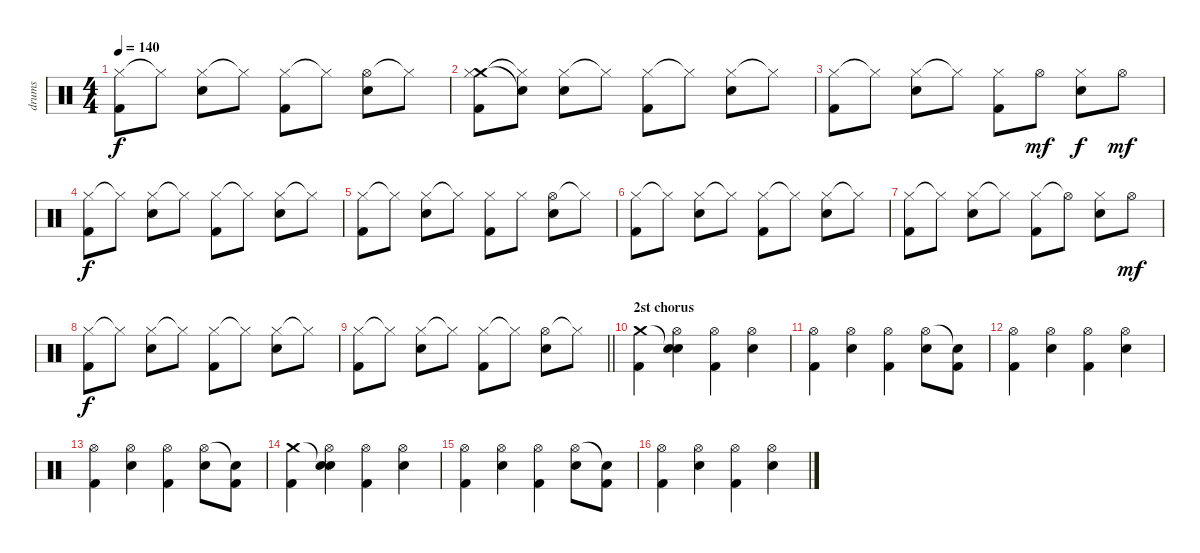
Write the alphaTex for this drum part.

\track ("drums" "drums") {instrument percussion}
\staff {score}
\articulation defaults
\ts (4 4)
\tempo 140
\clef neutral
\ks c
("Hi-Hat (closed)" "Kick (hit) 2").8{dy f} "Hi-Hat (closed)"{t}.8 ("Hi-Hat (closed)" "Electric Snare (hit)").8 "Hi-Hat (closed)"{t}.8 ("Hi-Hat (closed)" "Kick (hit) 2").8 "Hi-Hat (closed)"{t}.8 ("Hi-Hat (open)" "Electric Snare (hit)").8 "Hi-Hat (closed)"{t}.8 |
("Crash medium (hit)" "Hi-Hat (closed)" "Kick (hit) 2").8 ("Snare (hit)"{t} "Hi-Hat (closed)"{t}).8 ("Hi-Hat (closed)" "Electric Snare (hit)").8 "Hi-Hat (closed)"{t}.8 ("Hi-Hat (closed)" "Kick (hit) 2").8 "Hi-Hat (closed)"{t}.8 ("Hi-Hat (closed)" "Electric Snare (hit)").8 "Hi-Hat (closed)"{t}.8 |
("Hi-Hat (closed)" "Kick (hit) 2").8 "Hi-Hat (closed)"{t}.8 ("Hi-Hat (closed)" "Electric Snare (hit)").8 "Hi-Hat (closed)"{t}.8 ("Hi-Hat (closed)" "Kick (hit) 2").8 "Hi-Hat (open)".8{dy mf} ("Hi-Hat (closed)" "Electric Snare (hit)").8{dy f} "Hi-Hat (open)".8{dy mf} |
("Hi-Hat (closed)" "Kick (hit) 2").8{dy f} "Hi-Hat (closed)"{t}.8 ("Hi-Hat (closed)" "Electric Snare (hit)").8 "Hi-Hat (closed)"{t}.8 ("Hi-Hat (closed)" "Kick (hit) 2").8 "Hi-Hat (closed)"{t}.8 ("Hi-Hat (closed)" "Electric Snare (hit)").8 "Hi-Hat (closed)"{t}.8 |
("Hi-Hat (closed)" "Kick (hit) 2").8 "Hi-Hat (closed)"{t}.8 ("Hi-Hat (closed)" "Electric Snare (hit)").8 "Hi-Hat (closed)"{t}.8 ("Hi-Hat (closed)" "Kick (hit) 2").8 "Hi-Hat (closed)".8 ("Hi-Hat (open)" "Electric Snare (hit)").8 "Hi-Hat (closed)"{t}.8 |
("Hi-Hat (closed)" "Kick (hit) 2").8 "Hi-Hat (closed)"{t}.8 ("Hi-Hat (closed)" "Electric Snare (hit)").8 "Hi-Hat (closed)"{t}.8 ("Hi-Hat (closed)" "Kick (hit) 2").8 "Hi-Hat (closed)"{t}.8 ("Hi-Hat (closed)" "Electric Snare (hit)").8 "Hi-Hat (closed)"{t}.8 |
("Hi-Hat (closed)" "Kick (hit) 2").8 "Hi-Hat (closed)"{t}.8 ("Hi-Hat (closed)" "Electric Snare (hit)").8 "Hi-Hat (closed)"{t}.8 ("Hi-Hat (closed)" "Kick (hit) 2").8 "Hi-Hat (open)"{t}.8 ("Hi-Hat (closed)" "Electric Snare (hit)").8 "Hi-Hat (open)".8{dy mf} |
("Hi-Hat (closed)" "Kick (hit) 2").8{dy f} "Hi-Hat (closed)"{t}.8 ("Hi-Hat (closed)" "Electric Snare (hit)").8 "Hi-Hat (closed)"{t}.8 ("Hi-Hat (closed)" "Kick (hit) 2").8 "Hi-Hat (closed)"{t}.8 ("Hi-Hat (closed)" "Electric Snare (hit)").8 "Hi-Hat (closed)"{t}.8 |
\barLineRight lightlight
("Hi-Hat (closed)" "Kick (hit) 2").8 "Hi-Hat (closed)"{t}.8 ("Hi-Hat (closed)" "Electric Snare (hit)").8 "Hi-Hat (closed)"{t}.8 ("Hi-Hat (closed)" "Kick (hit) 2").8 "Hi-Hat (closed)"{t}.8 ("Hi-Hat (open)" "Electric Snare (hit)").8 "Hi-Hat (closed)"{t}.8 |
\section ("" "2st chorus")
("Crash medium (hit)" "Kick (hit) 2").4 ("Snare (hit)"{t} "Hi-Hat (open)" "Electric Snare (hit)").4 ("Hi-Hat (open)" "Kick (hit) 2").4 ("Hi-Hat (open)" "Electric Snare (hit)").4 |
("Hi-Hat (open)" "Kick (hit) 2").4 ("Hi-Hat (open)" "Electric Snare (hit)").4 ("Hi-Hat (open)" "Kick (hit) 2").4 ("Hi-Hat (open)" "Electric Snare (hit)").8 ("Snare (hit)"{t} "Kick (hit) 2").8 |
("Hi-Hat (open)" "Kick (hit) 2").4 ("Hi-Hat (open)" "Electric Snare (hit)").4 ("Hi-Hat (open)" "Kick (hit) 2").4 ("Hi-Hat (open)" "Electric Snare (hit)").4 |
("Hi-Hat (open)" "Kick (hit) 2").4 ("Hi-Hat (open)" "Electric Snare (hit)").4 ("Hi-Hat (open)" "Kick (hit) 2").4 ("Hi-Hat (open)" "Electric Snare (hit)").8 ("Snare (hit)"{t} "Kick (hit) 2").8 |
("Crash medium (hit)" "Kick (hit) 2").4 ("Snare (hit)"{t} "Hi-Hat (open)" "Electric Snare (hit)").4 ("Hi-Hat (open)" "Kick (hit) 2").4 ("Hi-Hat (open)" "Electric Snare (hit)").4 |
("Hi-Hat (open)" "Kick (hit) 2").4 ("Hi-Hat (open)" "Electric Snare (hit)").4 ("Hi-Hat (open)" "Kick (hit) 2").4 ("Hi-Hat (open)" "Electric Snare (hit)").8 ("Snare (hit)"{t} "Kick (hit) 2").8 |
("Hi-Hat (open)" "Kick (hit) 2").4 ("Hi-Hat (open)" "Electric Snare (hit)").4 ("Hi-Hat (open)" "Kick (hit) 2").4 ("Hi-Hat (open)" "Electric Snare (hit)").4
